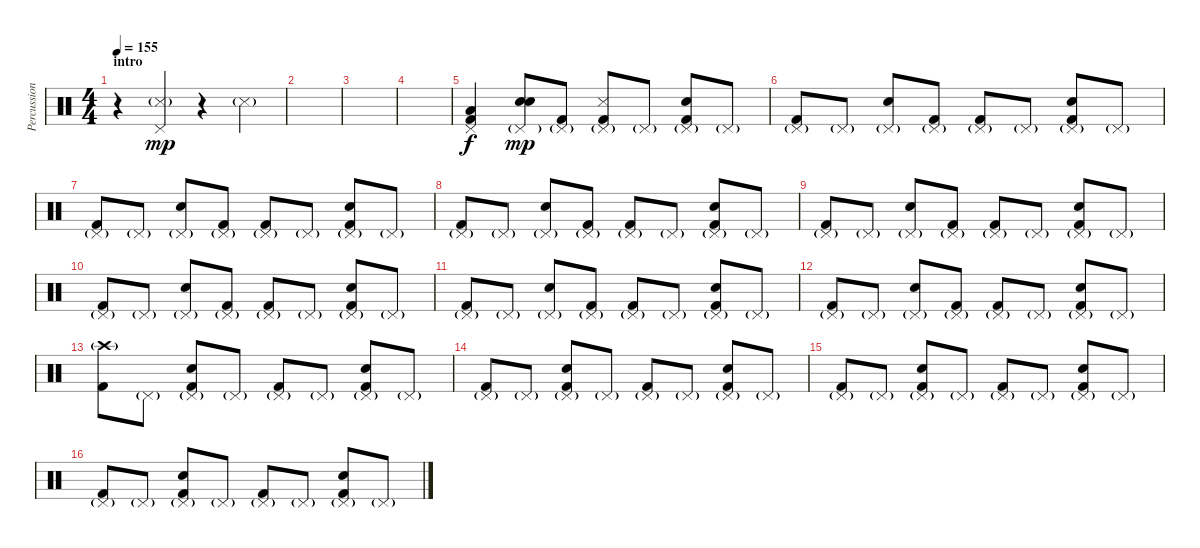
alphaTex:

\track ("Percussions" "Percussion") {instrument percussion}
\staff {score}
\articulation defaults
\ts (4 4)
\section ("" "intro")
\tempo 155
\clef neutral
\ks c
r.4{dy mp} ("Pedal Hi-Hat (hit)" "Metronome (hit)"{g}).4 r.4 "Metronome (hit)"{g}.4 |
|
|
|
("Pedal Hi-Hat (hit)" "Low Floor Tom (hit)" "Kick (hit) 2").4{dy f} ("Pedal Hi-Hat (hit)"{g} "Snare (hit) 2" "Snare (hit) 2").8{dy mp} ("Pedal Hi-Hat (hit)"{g} "Kick (hit) 2").8 ("Pedal Hi-Hat (hit)"{g} "Metronome (hit)" "Kick (hit) 2").8 "Pedal Hi-Hat (hit)"{g}.8 ("Pedal Hi-Hat (hit)"{g} "Snare (hit) 2" "Kick (hit) 2").8 "Pedal Hi-Hat (hit)"{g}.8 |
("Pedal Hi-Hat (hit)"{g} "Kick (hit) 2").8 "Pedal Hi-Hat (hit)"{g}.8 ("Pedal Hi-Hat (hit)"{g} "Snare (hit) 2").8 ("Pedal Hi-Hat (hit)"{g} "Kick (hit) 2").8 ("Pedal Hi-Hat (hit)"{g} "Kick (hit) 2").8 "Pedal Hi-Hat (hit)"{g}.8 ("Pedal Hi-Hat (hit)"{g} "Snare (hit) 2" "Kick (hit) 2").8 "Pedal Hi-Hat (hit)"{g}.8 |
("Pedal Hi-Hat (hit)"{g} "Kick (hit) 2").8 "Pedal Hi-Hat (hit)"{g}.8 ("Pedal Hi-Hat (hit)"{g} "Snare (hit) 2").8 ("Pedal Hi-Hat (hit)"{g} "Kick (hit) 2").8 ("Pedal Hi-Hat (hit)"{g} "Kick (hit) 2").8 "Pedal Hi-Hat (hit)"{g}.8 ("Pedal Hi-Hat (hit)"{g} "Snare (hit) 2" "Kick (hit) 2").8 "Pedal Hi-Hat (hit)"{g}.8 |
("Pedal Hi-Hat (hit)"{g} "Kick (hit) 2").8 "Pedal Hi-Hat (hit)"{g}.8 ("Pedal Hi-Hat (hit)"{g} "Snare (hit) 2").8 ("Pedal Hi-Hat (hit)"{g} "Kick (hit) 2").8 ("Pedal Hi-Hat (hit)"{g} "Kick (hit) 2").8 "Pedal Hi-Hat (hit)"{g}.8 ("Pedal Hi-Hat (hit)"{g} "Snare (hit) 2" "Kick (hit) 2").8 "Pedal Hi-Hat (hit)"{g}.8 |
("Pedal Hi-Hat (hit)"{g} "Kick (hit) 2").8 "Pedal Hi-Hat (hit)"{g}.8 ("Pedal Hi-Hat (hit)"{g} "Snare (hit) 2").8 ("Pedal Hi-Hat (hit)"{g} "Kick (hit) 2").8 ("Pedal Hi-Hat (hit)"{g} "Kick (hit) 2").8 "Pedal Hi-Hat (hit)"{g}.8 ("Pedal Hi-Hat (hit)"{g} "Snare (hit) 2" "Kick (hit) 2").8 "Pedal Hi-Hat (hit)"{g}.8 |
("Pedal Hi-Hat (hit)"{g} "Kick (hit) 2").8 "Pedal Hi-Hat (hit)"{g}.8 ("Pedal Hi-Hat (hit)"{g} "Snare (hit) 2").8 ("Pedal Hi-Hat (hit)"{g} "Kick (hit) 2").8 ("Pedal Hi-Hat (hit)"{g} "Kick (hit) 2").8 "Pedal Hi-Hat (hit)"{g}.8 ("Pedal Hi-Hat (hit)"{g} "Snare (hit) 2" "Kick (hit) 2").8 "Pedal Hi-Hat (hit)"{g}.8 |
("Pedal Hi-Hat (hit)"{g} "Kick (hit) 2").8 "Pedal Hi-Hat (hit)"{g}.8 ("Pedal Hi-Hat (hit)"{g} "Snare (hit) 2").8 ("Pedal Hi-Hat (hit)"{g} "Kick (hit) 2").8 ("Pedal Hi-Hat (hit)"{g} "Kick (hit) 2").8 "Pedal Hi-Hat (hit)"{g}.8 ("Pedal Hi-Hat (hit)"{g} "Snare (hit) 2" "Kick (hit) 2").8 "Pedal Hi-Hat (hit)"{g}.8 |
("Pedal Hi-Hat (hit)"{g} "Kick (hit) 2").8 "Pedal Hi-Hat (hit)"{g}.8 ("Pedal Hi-Hat (hit)"{g} "Snare (hit) 2").8 ("Pedal Hi-Hat (hit)"{g} "Kick (hit) 2").8 ("Pedal Hi-Hat (hit)"{g} "Kick (hit) 2").8 "Pedal Hi-Hat (hit)"{g}.8 ("Pedal Hi-Hat (hit)"{g} "Snare (hit) 2" "Kick (hit) 2").8 "Pedal Hi-Hat (hit)"{g}.8 |
("Crash high (hit)"{g} "Kick (hit) 2").8 "Pedal Hi-Hat (hit)"{g}.8 ("Pedal Hi-Hat (hit)"{g} "Snare (hit) 2" "Kick (hit) 2").8 "Pedal Hi-Hat (hit)"{g}.8 ("Pedal Hi-Hat (hit)"{g} "Kick (hit) 2").8 "Pedal Hi-Hat (hit)"{g}.8 ("Pedal Hi-Hat (hit)"{g} "Snare (hit) 2" "Kick (hit) 2").8 "Pedal Hi-Hat (hit)"{g}.8 |
("Pedal Hi-Hat (hit)"{g} "Kick (hit) 2").8 "Pedal Hi-Hat (hit)"{g}.8 ("Pedal Hi-Hat (hit)"{g} "Snare (hit) 2" "Kick (hit) 2").8 "Pedal Hi-Hat (hit)"{g}.8 ("Pedal Hi-Hat (hit)"{g} "Kick (hit) 2").8 "Pedal Hi-Hat (hit)"{g}.8 ("Pedal Hi-Hat (hit)"{g} "Snare (hit) 2" "Kick (hit) 2").8 "Pedal Hi-Hat (hit)"{g}.8 |
("Pedal Hi-Hat (hit)"{g} "Kick (hit) 2").8 "Pedal Hi-Hat (hit)"{g}.8 ("Pedal Hi-Hat (hit)"{g} "Snare (hit) 2" "Kick (hit) 2").8 "Pedal Hi-Hat (hit)"{g}.8 ("Pedal Hi-Hat (hit)"{g} "Kick (hit) 2").8 "Pedal Hi-Hat (hit)"{g}.8 ("Pedal Hi-Hat (hit)"{g} "Snare (hit) 2" "Kick (hit) 2").8 "Pedal Hi-Hat (hit)"{g}.8 |
("Pedal Hi-Hat (hit)"{g} "Kick (hit) 2").8 "Pedal Hi-Hat (hit)"{g}.8 ("Pedal Hi-Hat (hit)"{g} "Snare (hit) 2" "Kick (hit) 2").8 "Pedal Hi-Hat (hit)"{g}.8 ("Pedal Hi-Hat (hit)"{g} "Kick (hit) 2").8 "Pedal Hi-Hat (hit)"{g}.8 ("Pedal Hi-Hat (hit)"{g} "Snare (hit) 2" "Kick (hit) 2").8 "Pedal Hi-Hat (hit)"{g}.8
